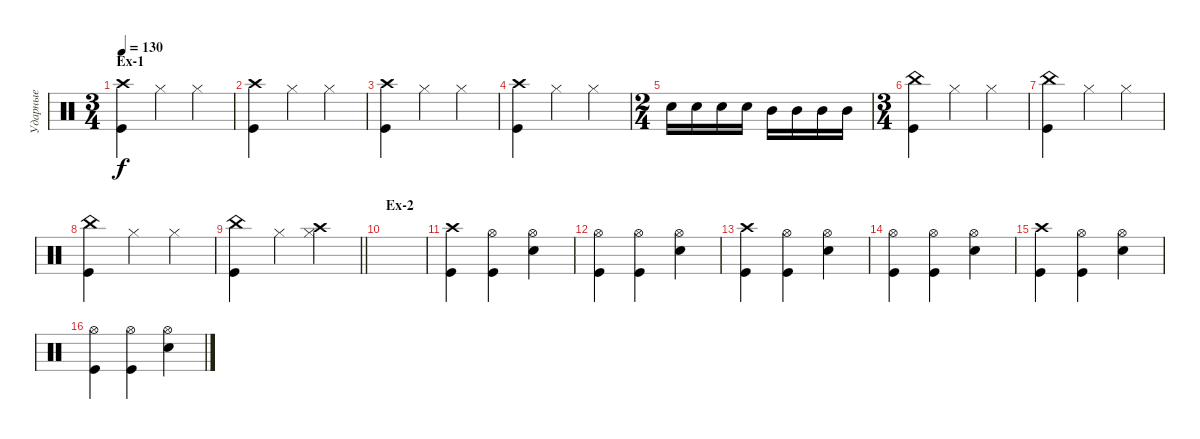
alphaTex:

\track ("Ударные" "Ударные") {instrument percussion}
\staff {score}
\articulation defaults
\ts (3 4)
\section ("" "Ex-1")
\tempo 130
\clef neutral
\ks c
("Crash high (hit)" "Kick (hit)").4{dy f} "Hi-Hat (closed)".4 "Hi-Hat (closed)".4 |
("Crash high (hit)" "Kick (hit)").4 "Hi-Hat (closed)".4 "Hi-Hat (closed)".4 |
("Crash high (hit)" "Kick (hit)").4 "Hi-Hat (closed)".4 "Hi-Hat (closed)".4 |
("Crash high (hit)" "Kick (hit)").4 "Hi-Hat (closed)".4 "Hi-Hat (closed)".4 |
\ts (2 4)
"Snare (hit) 2".16 "Snare (hit) 2".16 "Snare (hit) 2".16 "Snare (hit) 2".16 "Mid Tom (hit)".16 "Mid Tom (hit)".16 "Mid Tom (hit)".16 "Mid Tom (hit)".16 |
\ts (3 4)
("Kick (hit)" "China (hit)").4 "Hi-Hat (closed)".4 "Hi-Hat (closed)".4 |
("Kick (hit)" "China (hit)").4 "Hi-Hat (closed)".4 "Hi-Hat (closed)".4 |
("Kick (hit)" "China (hit)").4 "Hi-Hat (closed)".4 "Hi-Hat (closed)".4 |
\barLineRight lightlight
("Kick (hit)" "China (hit)").4 "Hi-Hat (closed)".4 ("Hi-Hat (closed)" "Crash high (hit)").4 |
\section ("" "Ex-2")
|
("Kick (hit)" "Crash high (hit)").4 ("Hi-Hat (open)" "Kick (hit)").4 ("Hi-Hat (open)" "Snare (hit) 2").4 |
("Hi-Hat (open)" "Kick (hit)").4 ("Hi-Hat (open)" "Kick (hit)").4 ("Hi-Hat (open)" "Snare (hit) 2").4 |
("Kick (hit)" "Crash high (hit)").4 ("Hi-Hat (open)" "Kick (hit)").4 ("Hi-Hat (open)" "Snare (hit) 2").4 |
("Hi-Hat (open)" "Kick (hit)").4 ("Hi-Hat (open)" "Kick (hit)").4 ("Hi-Hat (open)" "Snare (hit) 2").4 |
("Kick (hit)" "Crash high (hit)").4 ("Hi-Hat (open)" "Kick (hit)").4 ("Hi-Hat (open)" "Snare (hit) 2").4 |
("Hi-Hat (open)" "Kick (hit)").4 ("Hi-Hat (open)" "Kick (hit)").4 ("Hi-Hat (open)" "Snare (hit) 2").4
